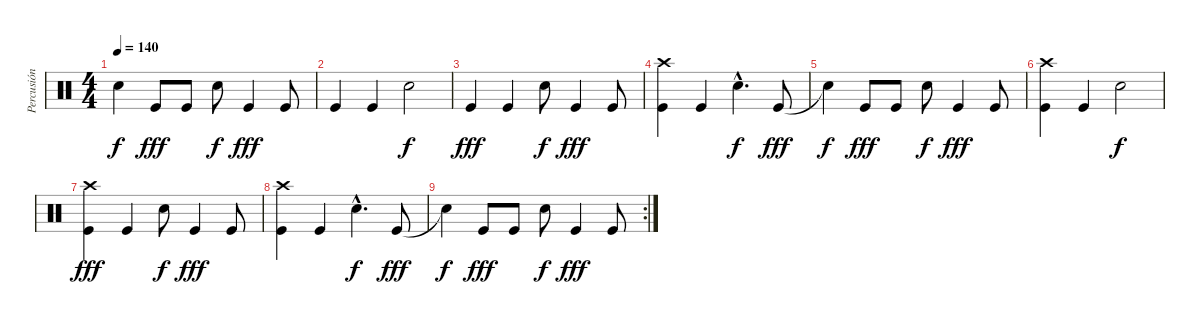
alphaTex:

\track ("Percusión" "Percusión") {instrument percussion}
\staff {score}
\articulation defaults
\ts (4 4)
\tempo 140
\clef neutral
\ks c "Snare (hit)"{t}.4{dy f} "Kick (hit)".8{dy fff} "Kick (hit)".8 "Electric Snare (hit)".8{dy f} "Kick (hit)".4{dy fff} "Kick (hit)".8
|
"Kick (hit)".4 "Kick (hit)".4 "Electric Snare (hit)".2{dy f} |
"Kick (hit)".4{dy fff} "Kick (hit)".4 "Electric Snare (hit)".8{dy f} "Kick (hit)".4{dy fff} "Kick (hit)".8 |
("Crash high (hit)" "Kick (hit)").4 "Kick (hit)".4 "Electric Snare (hit)"{hac}.4{d dy f} "Kick (hit)".8{dy fff} |
"Snare (hit)"{t}.4{dy f} "Kick (hit)".8{dy fff} "Kick (hit)".8 "Electric Snare (hit)".8{dy f} "Kick (hit)".4{dy fff} "Kick (hit)".8 |
("Crash high (hit)" "Kick (hit)").4 "Kick (hit)".4 "Electric Snare (hit)".2{dy f} |
("Crash high (hit)" "Kick (hit)").4{dy fff} "Kick (hit)".4 "Electric Snare (hit)".8{dy f} "Kick (hit)".4{dy fff} "Kick (hit)".8 |
("Crash high (hit)" "Kick (hit)").4 "Kick (hit)".4 "Electric Snare (hit)"{hac}.4{d dy f} "Kick (hit)".8{dy fff} |
\rc 2 "Snare (hit)"{t}.4{dy f} "Kick (hit)".8{dy fff} "Kick (hit)".8 "Electric Snare (hit)".8{dy f} "Kick (hit)".4{dy fff} "Kick (hit)".8
